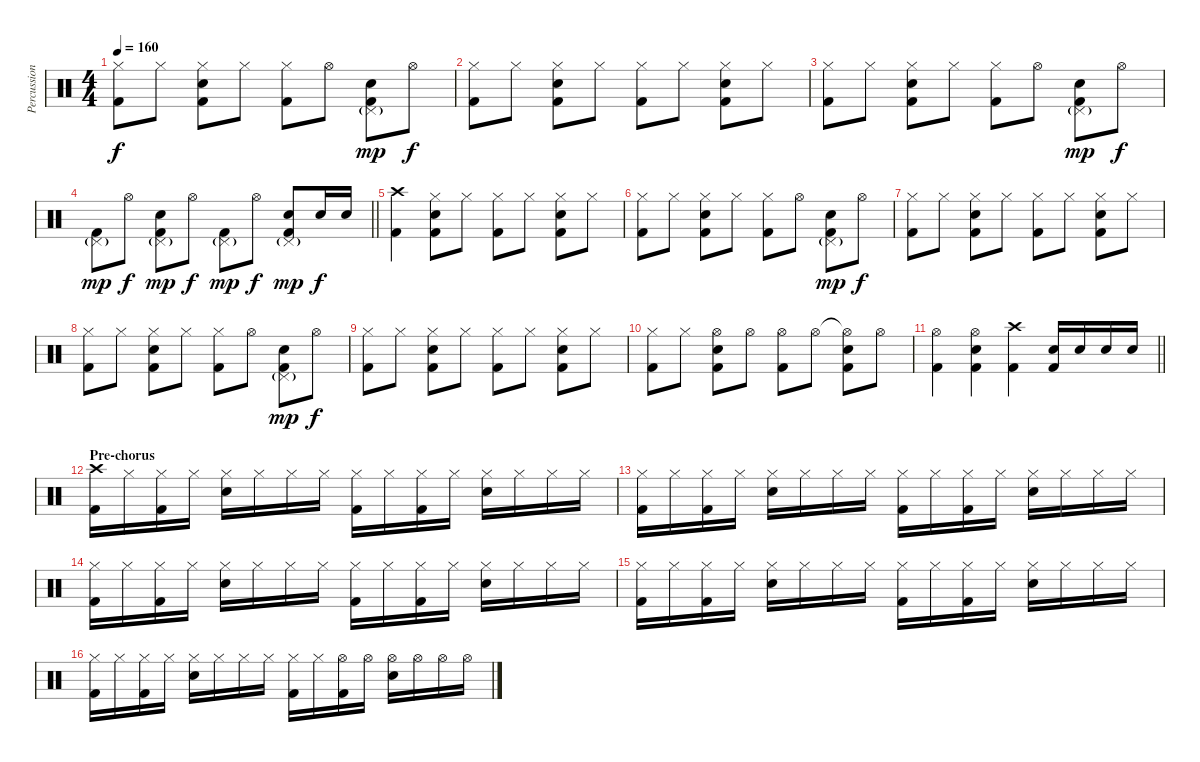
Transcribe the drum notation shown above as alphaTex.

\track ("Percussion" "Percussion") {instrument percussion}
\staff {score}
\articulation defaults
\ts (4 4)
\tempo 160
\clef neutral
\ks c
("Hi-Hat (closed)" "Kick (hit) 2").8{dy f} "Hi-Hat (closed)".8 ("Hi-Hat (closed)" "Electric Snare (hit)" "Kick (hit) 2").8 "Hi-Hat (closed)".8 ("Hi-Hat (closed)" "Kick (hit) 2").8 "Hi-Hat (open)".8 ("Pedal Hi-Hat (hit)"{g} "Electric Snare (hit)" "Kick (hit) 2").8{dy mp} "Hi-Hat (open)".8{dy f} |
("Hi-Hat (closed)" "Kick (hit) 2").8 "Hi-Hat (closed)".8 ("Hi-Hat (closed)" "Electric Snare (hit)" "Kick (hit) 2").8 "Hi-Hat (closed)".8 ("Hi-Hat (closed)" "Kick (hit) 2").8 "Hi-Hat (closed)".8 ("Hi-Hat (closed)" "Electric Snare (hit)" "Kick (hit) 2").8 "Hi-Hat (closed)".8 |
("Hi-Hat (closed)" "Kick (hit) 2").8 "Hi-Hat (closed)".8 ("Hi-Hat (closed)" "Electric Snare (hit)" "Kick (hit) 2").8 "Hi-Hat (closed)".8 ("Hi-Hat (closed)" "Kick (hit) 2").8 "Hi-Hat (open)".8 ("Pedal Hi-Hat (hit)"{g} "Electric Snare (hit)" "Kick (hit) 2").8{dy mp} "Hi-Hat (open)".8{dy f} |
\barLineRight lightlight
("Pedal Hi-Hat (hit)"{g} "Kick (hit) 2").8{dy mp} "Hi-Hat (open)".8{dy f} ("Pedal Hi-Hat (hit)"{g} "Electric Snare (hit)" "Kick (hit) 2").8{dy mp} "Hi-Hat (open)".8{dy f} ("Pedal Hi-Hat (hit)"{g} "Kick (hit) 2").8{dy mp} "Hi-Hat (open)".8{dy f} ("Pedal Hi-Hat (hit)"{g} "Electric Snare (hit)" "Kick (hit) 2").8{dy mp} "Electric Snare (hit)".16{dy f} "Electric Snare (hit)".16 |
("Crash high (hit)" "Kick (hit) 2").4 ("Hi-Hat (closed)" "Electric Snare (hit)" "Kick (hit) 2").8 "Hi-Hat (closed)".8 ("Hi-Hat (closed)" "Kick (hit) 2").8 "Hi-Hat (closed)".8 ("Hi-Hat (closed)" "Electric Snare (hit)" "Kick (hit) 2").8 "Hi-Hat (closed)".8 |
("Hi-Hat (closed)" "Kick (hit) 2").8 "Hi-Hat (closed)".8 ("Hi-Hat (closed)" "Electric Snare (hit)" "Kick (hit) 2").8 "Hi-Hat (closed)".8 ("Hi-Hat (closed)" "Kick (hit) 2").8 "Hi-Hat (open)".8 ("Pedal Hi-Hat (hit)"{g} "Electric Snare (hit)" "Kick (hit) 2").8{dy mp} "Hi-Hat (open)".8{dy f} |
("Hi-Hat (closed)" "Kick (hit) 2").8 "Hi-Hat (closed)".8 ("Hi-Hat (closed)" "Electric Snare (hit)" "Kick (hit) 2").8 "Hi-Hat (closed)".8 ("Hi-Hat (closed)" "Kick (hit) 2").8 "Hi-Hat (closed)".8 ("Hi-Hat (closed)" "Electric Snare (hit)" "Kick (hit) 2").8 "Hi-Hat (closed)".8 |
("Hi-Hat (closed)" "Kick (hit) 2").8 "Hi-Hat (closed)".8 ("Hi-Hat (closed)" "Electric Snare (hit)" "Kick (hit) 2").8 "Hi-Hat (closed)".8 ("Hi-Hat (closed)" "Kick (hit) 2").8 "Hi-Hat (open)".8 ("Pedal Hi-Hat (hit)"{g} "Electric Snare (hit)" "Kick (hit) 2").8{dy mp} "Hi-Hat (open)".8{dy f} |
("Hi-Hat (closed)" "Kick (hit) 2").8 "Hi-Hat (closed)".8 ("Hi-Hat (closed)" "Electric Snare (hit)" "Kick (hit) 2").8 "Hi-Hat (closed)".8 ("Hi-Hat (closed)" "Kick (hit) 2").8 "Hi-Hat (closed)".8 ("Hi-Hat (closed)" "Electric Snare (hit)" "Kick (hit) 2").8 "Hi-Hat (closed)".8 |
("Hi-Hat (closed)" "Kick (hit) 2").8 "Hi-Hat (closed)".8 ("Hi-Hat (open)" "Electric Snare (hit)" "Kick (hit) 2").8 "Hi-Hat (open)".8 ("Hi-Hat (open)" "Kick (hit) 2").8 "Hi-Hat (open)".8 ("Hi-Hat (open)"{t} "Electric Snare (hit)" "Kick (hit) 2").8 "Hi-Hat (open)".8 |
\barLineRight lightlight
("Hi-Hat (open)" "Kick (hit) 2").4 ("Hi-Hat (open)" "Electric Snare (hit)" "Kick (hit) 2").4 ("Crash high (hit)" "Kick (hit) 2").4 ("Electric Snare (hit)" "Kick (hit) 2").16 "Electric Snare (hit)".16 "Electric Snare (hit)".16 "Electric Snare (hit)".16 |
\section ("" "Pre-chorus")
("Crash high (hit)" "Kick (hit) 2").16 "Hi-Hat (closed)".16 ("Hi-Hat (closed)" "Kick (hit) 2").16 "Hi-Hat (closed)".16 ("Hi-Hat (closed)" "Electric Snare (hit)").16 "Hi-Hat (closed)".16 "Hi-Hat (closed)".16 "Hi-Hat (closed)".16 ("Hi-Hat (closed)" "Kick (hit) 2").16 "Hi-Hat (closed)".16 ("Hi-Hat (closed)" "Kick (hit) 2").16 "Hi-Hat (closed)".16 ("Hi-Hat (closed)" "Electric Snare (hit)").16 "Hi-Hat (closed)".16 "Hi-Hat (closed)".16 "Hi-Hat (closed)".16 |
("Hi-Hat (closed)" "Kick (hit) 2").16 "Hi-Hat (closed)".16 ("Hi-Hat (closed)" "Kick (hit) 2").16 "Hi-Hat (closed)".16 ("Hi-Hat (closed)" "Electric Snare (hit)").16 "Hi-Hat (closed)".16 "Hi-Hat (closed)".16 "Hi-Hat (closed)".16 ("Hi-Hat (closed)" "Kick (hit) 2").16 "Hi-Hat (closed)".16 ("Hi-Hat (closed)" "Kick (hit) 2").16 "Hi-Hat (closed)".16 ("Hi-Hat (closed)" "Electric Snare (hit)").16 "Hi-Hat (closed)".16 "Hi-Hat (closed)".16 "Hi-Hat (closed)".16 |
("Hi-Hat (closed)" "Kick (hit) 2").16 "Hi-Hat (closed)".16 ("Hi-Hat (closed)" "Kick (hit) 2").16 "Hi-Hat (closed)".16 ("Hi-Hat (closed)" "Electric Snare (hit)").16 "Hi-Hat (closed)".16 "Hi-Hat (closed)".16 "Hi-Hat (closed)".16 ("Hi-Hat (closed)" "Kick (hit) 2").16 "Hi-Hat (closed)".16 ("Hi-Hat (closed)" "Kick (hit) 2").16 "Hi-Hat (closed)".16 ("Hi-Hat (closed)" "Electric Snare (hit)").16 "Hi-Hat (closed)".16 "Hi-Hat (closed)".16 "Hi-Hat (closed)".16 |
("Hi-Hat (closed)" "Kick (hit) 2").16 "Hi-Hat (closed)".16 ("Hi-Hat (closed)" "Kick (hit) 2").16 "Hi-Hat (closed)".16 ("Hi-Hat (closed)" "Electric Snare (hit)").16 "Hi-Hat (closed)".16 "Hi-Hat (closed)".16 "Hi-Hat (closed)".16 ("Hi-Hat (closed)" "Kick (hit) 2").16 "Hi-Hat (closed)".16 ("Hi-Hat (closed)" "Kick (hit) 2").16 "Hi-Hat (closed)".16 ("Hi-Hat (closed)" "Electric Snare (hit)").16 "Hi-Hat (closed)".16 "Hi-Hat (closed)".16 "Hi-Hat (closed)".16 |
("Hi-Hat (closed)" "Kick (hit) 2").16 "Hi-Hat (closed)".16 ("Hi-Hat (closed)" "Kick (hit) 2").16 "Hi-Hat (closed)".16 ("Hi-Hat (closed)" "Electric Snare (hit)").16 "Hi-Hat (closed)".16 "Hi-Hat (closed)".16 "Hi-Hat (closed)".16 ("Hi-Hat (closed)" "Kick (hit) 2").16 "Hi-Hat (closed)".16 ("Hi-Hat (open)" "Kick (hit) 2").16 "Hi-Hat (open)".16 ("Hi-Hat (open)" "Electric Snare (hit)").16 "Hi-Hat (open)".16 "Hi-Hat (open)".16 "Hi-Hat (open)".16
